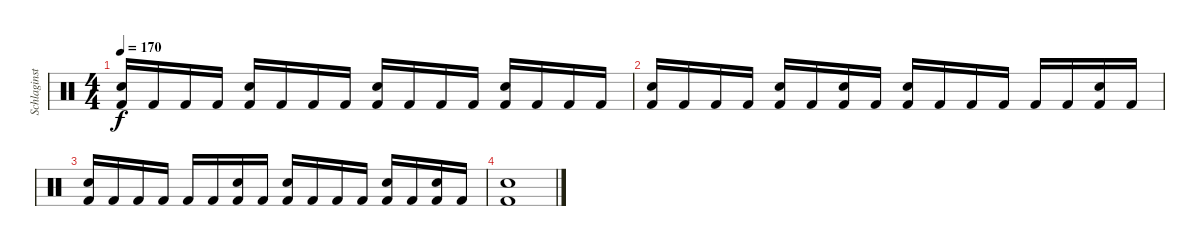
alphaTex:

\track ("Schlaginstrumente - Auswahl" "Schlaginst") {instrument percussion}
\staff {score}
\articulation defaults
\ts (4 4)
\tempo 170
\clef neutral
\ks c
("Snare (hit) 2" "Kick (hit) 2").16{dy f} "Kick (hit) 2".16 "Kick (hit) 2".16 "Kick (hit) 2".16 ("Snare (hit) 2" "Kick (hit) 2").16 "Kick (hit) 2".16 "Kick (hit) 2".16 "Kick (hit) 2".16 ("Snare (hit) 2" "Kick (hit) 2").16 "Kick (hit) 2".16 "Kick (hit) 2".16 "Kick (hit) 2".16 ("Snare (hit) 2" "Kick (hit) 2").16 "Kick (hit) 2".16 "Kick (hit) 2".16 "Kick (hit) 2".16 |
("Snare (hit) 2" "Kick (hit) 2").16 "Kick (hit) 2".16 "Kick (hit) 2".16 "Kick (hit) 2".16 ("Snare (hit) 2" "Kick (hit) 2").16 "Kick (hit) 2".16 ("Snare (hit) 2" "Kick (hit) 2").16 "Kick (hit) 2".16 ("Snare (hit) 2" "Kick (hit) 2").16 "Kick (hit) 2".16 "Kick (hit) 2".16 "Kick (hit) 2".16 "Kick (hit) 2".16 "Kick (hit) 2".16 ("Snare (hit) 2" "Kick (hit) 2").16 "Kick (hit) 2".16 |
("Snare (hit) 2" "Kick (hit) 2").16 "Kick (hit) 2".16 "Kick (hit) 2".16 "Kick (hit) 2".16 "Kick (hit) 2".16 "Kick (hit) 2".16 ("Snare (hit) 2" "Kick (hit) 2").16 "Kick (hit) 2".16 ("Snare (hit) 2" "Kick (hit) 2").16 "Kick (hit) 2".16 "Kick (hit) 2".16 "Kick (hit) 2".16 ("Snare (hit) 2" "Kick (hit) 2").16 "Kick (hit) 2".16 ("Snare (hit) 2" "Kick (hit) 2").16 "Kick (hit) 2".16 |
("Snare (hit) 2" "Kick (hit) 2").1
